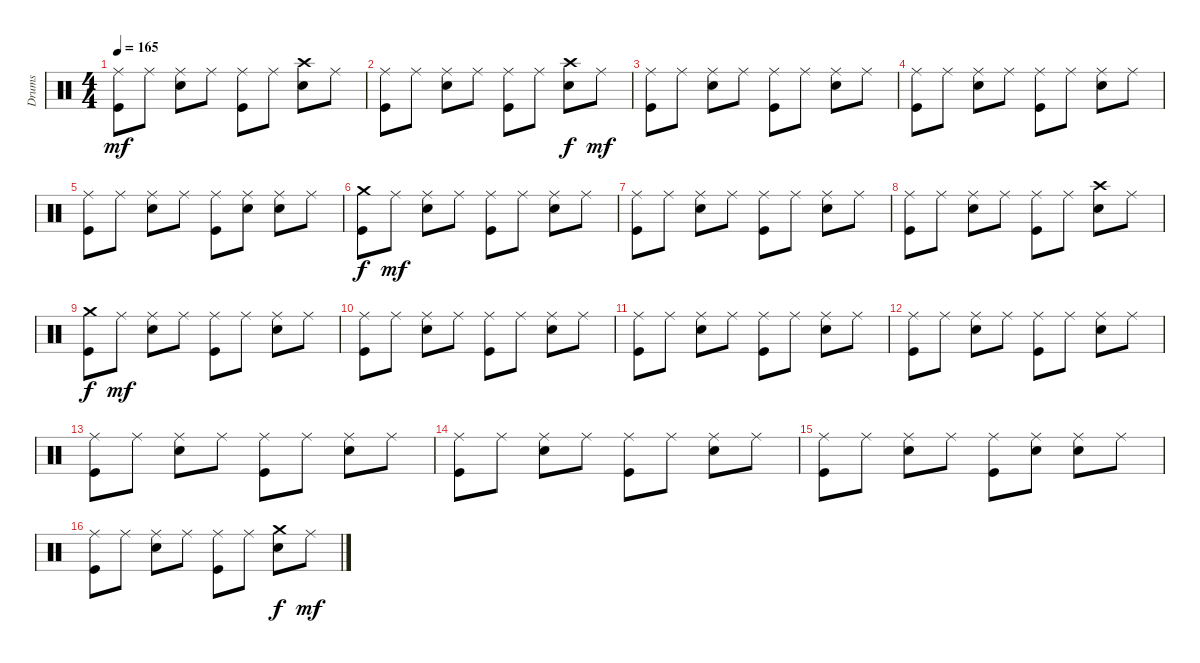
\track ("Drums" "Drums") {instrument percussion}
\staff {score}
\articulation defaults
\ts (4 4)
\tempo 165
\clef neutral
\ks c
("Ride (middle)" "Kick (hit)").8{dy mf} "Ride (middle)".8 ("Ride (middle)" "Electric Snare (hit)").8 "Ride (middle)".8 ("Ride (middle)" "Kick (hit)").8 "Ride (middle)".8 ("Crash high (hit)" "Electric Snare (hit)").8 "Ride (middle)".8 |
("Ride (middle)" "Kick (hit)").8 "Ride (middle)".8 ("Ride (middle)" "Electric Snare (hit)").8 "Ride (middle)".8 ("Ride (middle)" "Kick (hit)").8 "Ride (middle)".8 ("Crash high (hit)" "Electric Snare (hit)").8{dy f} "Ride (middle)".8{dy mf} |
("Ride (middle)" "Kick (hit)").8 "Ride (middle)".8 ("Ride (middle)" "Electric Snare (hit)").8 "Ride (middle)".8 ("Ride (middle)" "Kick (hit)").8 "Ride (middle)".8 ("Ride (middle)" "Electric Snare (hit)").8 "Ride (middle)".8 |
("Ride (middle)" "Kick (hit)").8 "Ride (middle)".8 ("Ride (middle)" "Electric Snare (hit)").8 "Ride (middle)".8 ("Ride (middle)" "Kick (hit)").8 "Ride (middle)".8 ("Ride (middle)" "Electric Snare (hit)").8 "Ride (middle)".8 |
("Ride (middle)" "Kick (hit)").8 "Ride (middle)".8 ("Ride (middle)" "Electric Snare (hit)").8 "Ride (middle)".8 ("Ride (middle)" "Kick (hit)").8 ("Ride (middle)" "Electric Snare (hit)").8 ("Ride (middle)" "Electric Snare (hit)").8 "Ride (middle)".8 |
("Crash medium (hit)" "Kick (hit)").8{dy f} "Ride (middle)".8{dy mf} ("Ride (middle)" "Electric Snare (hit)").8 "Ride (middle)".8 ("Ride (middle)" "Kick (hit)").8 "Ride (middle)".8 ("Ride (middle)" "Electric Snare (hit)").8 "Ride (middle)".8 |
("Ride (middle)" "Kick (hit)").8 "Ride (middle)".8 ("Ride (middle)" "Electric Snare (hit)").8 "Ride (middle)".8 ("Ride (middle)" "Kick (hit)").8 "Ride (middle)".8 ("Ride (middle)" "Electric Snare (hit)").8 "Ride (middle)".8 |
("Ride (middle)" "Kick (hit)").8 "Ride (middle)".8 ("Ride (middle)" "Electric Snare (hit)").8 "Ride (middle)".8 ("Ride (middle)" "Kick (hit)").8 "Ride (middle)".8 ("Crash high (hit)" "Electric Snare (hit)").8 "Ride (middle)".8 |
("Crash medium (hit)" "Kick (hit)").8{dy f} "Ride (middle)".8{dy mf} ("Ride (middle)" "Electric Snare (hit)").8 "Ride (middle)".8 ("Ride (middle)" "Kick (hit)").8 "Ride (middle)".8 ("Ride (middle)" "Electric Snare (hit)").8 "Ride (middle)".8 |
("Ride (middle)" "Kick (hit)").8 "Ride (middle)".8 ("Ride (middle)" "Electric Snare (hit)").8 "Ride (middle)".8 ("Ride (middle)" "Kick (hit)").8 "Ride (middle)".8 ("Ride (middle)" "Electric Snare (hit)").8 "Ride (middle)".8 |
("Ride (middle)" "Kick (hit)").8 "Ride (middle)".8 ("Ride (middle)" "Electric Snare (hit)").8 "Ride (middle)".8 ("Ride (middle)" "Kick (hit)").8 "Ride (middle)".8 ("Ride (middle)" "Electric Snare (hit)").8 "Ride (middle)".8 |
("Ride (middle)" "Kick (hit)").8 "Ride (middle)".8 ("Ride (middle)" "Electric Snare (hit)").8 "Ride (middle)".8 ("Ride (middle)" "Kick (hit)").8 "Ride (middle)".8 ("Ride (middle)" "Electric Snare (hit)").8 "Ride (middle)".8 |
("Ride (middle)" "Kick (hit)").8 "Ride (middle)".8 ("Ride (middle)" "Electric Snare (hit)").8 "Ride (middle)".8 ("Ride (middle)" "Kick (hit)").8 "Ride (middle)".8 ("Ride (middle)" "Electric Snare (hit)").8 "Ride (middle)".8 |
("Ride (middle)" "Kick (hit)").8 "Ride (middle)".8 ("Ride (middle)" "Electric Snare (hit)").8 "Ride (middle)".8 ("Ride (middle)" "Kick (hit)").8 "Ride (middle)".8 ("Ride (middle)" "Electric Snare (hit)").8 "Ride (middle)".8 |
("Ride (middle)" "Kick (hit)").8 "Ride (middle)".8 ("Ride (middle)" "Electric Snare (hit)").8 "Ride (middle)".8 ("Ride (middle)" "Kick (hit)").8 ("Ride (middle)" "Electric Snare (hit)").8 ("Ride (middle)" "Electric Snare (hit)").8 "Ride (middle)".8 |
("Ride (middle)" "Kick (hit)").8 "Ride (middle)".8 ("Ride (middle)" "Electric Snare (hit)").8 "Ride (middle)".8 ("Ride (middle)" "Kick (hit)").8 "Ride (middle)".8 ("Crash medium (hit)" "Electric Snare (hit)").8{dy f} "Ride (middle)".8{dy mf}
